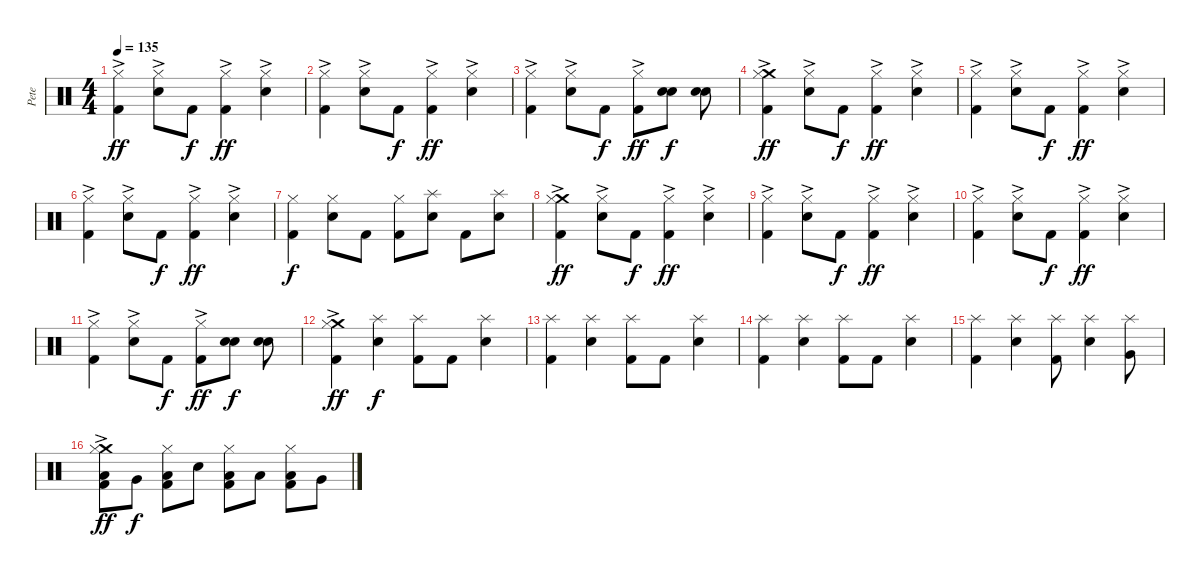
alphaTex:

\track ("Pete" "Pete") {instrument percussion}
\staff {score}
\articulation defaults
\ts (4 4)
\tempo 135
\clef neutral
\ks c
("Hi-Hat (closed)"{ac} "Kick (hit) 2").4{dy ff} ("Hi-Hat (closed)"{ac} "Electric Snare (hit)").8 "Kick (hit) 2".8{dy f} ("Hi-Hat (closed)"{ac} "Kick (hit) 2").4{dy ff} ("Hi-Hat (closed)"{ac} "Electric Snare (hit)").4 |
("Hi-Hat (closed)"{ac} "Kick (hit) 2").4 ("Hi-Hat (closed)"{ac} "Electric Snare (hit)").8 "Kick (hit) 2".8{dy f} ("Hi-Hat (closed)"{ac} "Kick (hit) 2").4{dy ff} ("Hi-Hat (closed)"{ac} "Electric Snare (hit)").4 |
("Hi-Hat (closed)"{ac} "Kick (hit) 2").4 ("Hi-Hat (closed)"{ac} "Electric Snare (hit)").8 "Kick (hit) 2".8{dy f} ("Hi-Hat (closed)"{ac} "Kick (hit) 2").8{dy ff} ("Electric Snare (hit)" "Electric Snare (hit)").8{dy f} ("Electric Snare (hit)" "Electric Snare (hit)").8 |
("Crash medium (hit)" "Hi-Hat (closed)"{ac} "Kick (hit) 2").4{dy ff} ("Hi-Hat (closed)"{ac} "Electric Snare (hit)").8 "Kick (hit) 2".8{dy f} ("Hi-Hat (closed)"{ac} "Kick (hit) 2").4{dy ff} ("Hi-Hat (closed)"{ac} "Electric Snare (hit)").4 |
("Hi-Hat (closed)"{ac} "Kick (hit) 2").4 ("Hi-Hat (closed)"{ac} "Electric Snare (hit)").8 "Kick (hit) 2".8{dy f} ("Hi-Hat (closed)"{ac} "Kick (hit) 2").4{dy ff} ("Hi-Hat (closed)"{ac} "Electric Snare (hit)").4 |
("Hi-Hat (closed)"{ac} "Kick (hit) 2").4 ("Hi-Hat (closed)"{ac} "Electric Snare (hit)").8 "Kick (hit) 2".8{dy f} ("Hi-Hat (closed)"{ac} "Kick (hit) 2").4{dy ff} ("Hi-Hat (closed)"{ac} "Electric Snare (hit)").4 |
("Hi-Hat (closed)" "Kick (hit) 2").4{dy f} ("Hi-Hat (closed)" "Electric Snare (hit)").8 "Kick (hit) 2".8 ("Hi-Hat (closed)" "Kick (hit) 2").8 ("Splash (hit)" "Electric Snare (hit)").8 "Kick (hit) 2".8 ("Splash (hit)" "Electric Snare (hit)").8 |
("Crash medium (hit)" "Hi-Hat (closed)"{ac} "Kick (hit) 2").4{dy ff} ("Hi-Hat (closed)"{ac} "Electric Snare (hit)").8 "Kick (hit) 2".8{dy f} ("Hi-Hat (closed)"{ac} "Kick (hit) 2").4{dy ff} ("Hi-Hat (closed)"{ac} "Electric Snare (hit)").4 |
("Hi-Hat (closed)"{ac} "Kick (hit) 2").4 ("Hi-Hat (closed)"{ac} "Electric Snare (hit)").8 "Kick (hit) 2".8{dy f} ("Hi-Hat (closed)"{ac} "Kick (hit) 2").4{dy ff} ("Hi-Hat (closed)"{ac} "Electric Snare (hit)").4 |
("Hi-Hat (closed)"{ac} "Kick (hit) 2").4 ("Hi-Hat (closed)"{ac} "Electric Snare (hit)").8 "Kick (hit) 2".8{dy f} ("Hi-Hat (closed)"{ac} "Kick (hit) 2").4{dy ff} ("Hi-Hat (closed)"{ac} "Electric Snare (hit)").4 |
("Hi-Hat (closed)"{ac} "Kick (hit) 2").4 ("Hi-Hat (closed)"{ac} "Electric Snare (hit)").8 "Kick (hit) 2".8{dy f} ("Hi-Hat (closed)"{ac} "Kick (hit) 2").8{dy ff} ("Electric Snare (hit)" "Electric Snare (hit)").8{dy f} ("Electric Snare (hit)" "Electric Snare (hit)").8 |
("Crash medium (hit)" "Hi-Hat (closed)"{ac} "Kick (hit) 2").4{dy ff} ("Splash (hit)" "Electric Snare (hit)").4{dy f} ("Splash (hit)" "Kick (hit) 2").8 "Kick (hit) 2".8 ("Splash (hit)" "Electric Snare (hit)").4 |
("Splash (hit)" "Kick (hit) 2").4 ("Splash (hit)" "Electric Snare (hit)").4 ("Splash (hit)" "Kick (hit) 2").8 "Kick (hit) 2".8 ("Splash (hit)" "Electric Snare (hit)").4 |
("Splash (hit)" "Kick (hit) 2").4 ("Splash (hit)" "Electric Snare (hit)").4 ("Splash (hit)" "Kick (hit) 2").8 "Kick (hit) 2".8 ("Splash (hit)" "Electric Snare (hit)").4 |
("Splash (hit)" "Kick (hit) 2").4 ("Splash (hit)" "Electric Snare (hit)").4 ("Splash (hit)" "Kick (hit) 2").8 ("Splash (hit)" "Electric Snare (hit)").4 ("Splash (hit)" "Very Low Tom (hit)").8 |
("Crash medium (hit)" "Low Floor Tom (hit)" "Hi-Hat (closed)"{ac} "Kick (hit) 2").8{dy ff} "Very Low Tom (hit)".8{dy f} ("Low Floor Tom (hit)" "Hi-Hat (closed)" "Kick (hit) 2").8 "Electric Snare (hit)".8 ("Low Floor Tom (hit)" "Hi-Hat (closed)" "Kick (hit) 2").8 "Low Floor Tom (hit)".8 ("Low Tom (hit)" "Hi-Hat (closed)" "Kick (hit) 2").8 "Very Low Tom (hit)".8
